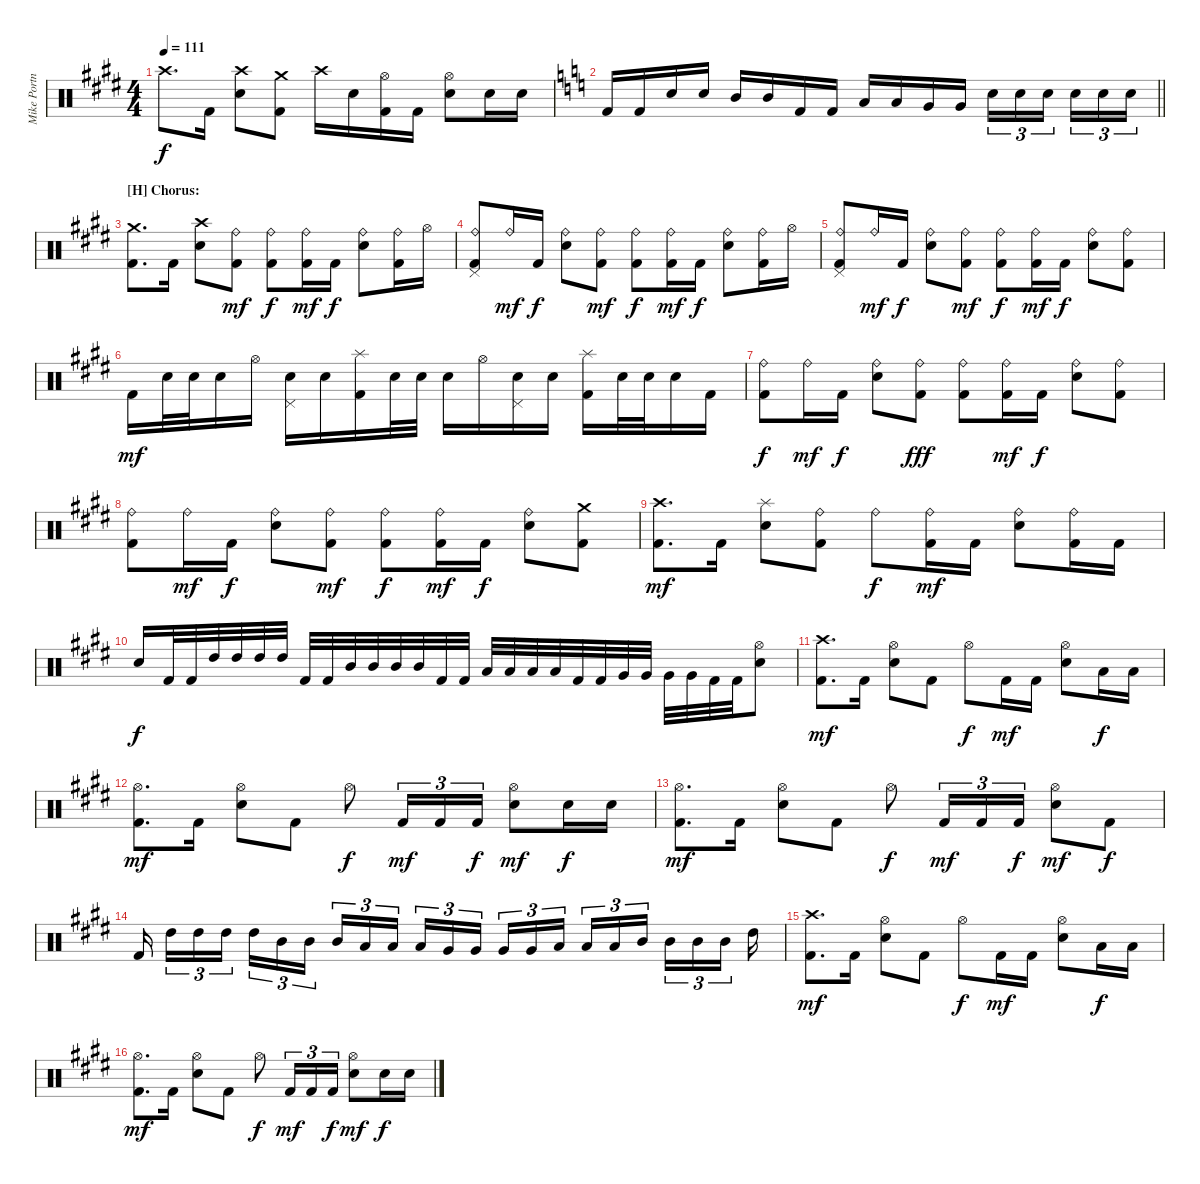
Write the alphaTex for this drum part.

\track ("Mike Portnoy - Drums" "Mike Portn") {instrument percussion}
\staff {score}
\articulation defaults
\ts (4 4)
\tempo 111
\clef neutral
\ks c#minor "Crash high (hit)".8{d dy f} "Kick (hit) 2".16
("Crash high (hit)" "Electric Snare (hit)").8 ("Crash medium (hit)" "Kick (hit) 2").8 "Crash high (hit)".16 "Electric Snare (hit)".16 ("Hi-Hat (open)" "Kick (hit) 2").16 "Kick (hit) 2".16 ("Hi-Hat (open)" "Electric Snare (hit)").8 "Electric Snare (hit)".16 "Electric Snare (hit)".16 |
\barLineRight lightlight
\ks c "Kick (hit) 2".16 "Kick (hit) 2".16 "Electric Snare (hit)".16 "Electric Snare (hit)".16 "Mid Tom (hit)".16 "Mid Tom (hit)".16 "Kick (hit) 2".16 "Kick (hit) 2".16 "Low Tom (hit)".16 "Low Tom (hit)".16 "Very Low Tom (hit)".16 "Very Low Tom (hit)".16 "Electric Snare (hit)".16{tu (3 2)} "Electric Snare (hit)".16{tu (3 2)} "Electric Snare (hit)".16{tu (3 2) beam splitsecondary} "Electric Snare (hit)".16{tu (3 2)} "Electric Snare (hit)".16{tu (3 2)} "Electric Snare (hit)".16{tu (3 2)}
|
\section ("" "[H] Chorus:")
\ks c#minor
("Kick (hit) 2" "Crash medium (hit)").8{d} "Kick (hit) 2".16 ("Electric Snare (hit)" "Crash high (hit)").8 ("Kick (hit) 2" "Ride (bell)").8{dy mf} ("Kick (hit) 2" "Ride (bell)").8{dy f} ("Kick (hit) 2" "Ride (bell)").16{dy mf} "Kick (hit) 2".16{dy f} ("Electric Snare (hit)" "Ride (bell)").8 ("Kick (hit) 2" "Ride (bell)").16 "Hi-Hat (open)".16 |
("Kick (hit) 2" "Ride (bell)" "Pedal Hi-Hat (hit)").8 "Ride (bell)".16{dy mf} "Kick (hit) 2".16{dy f} ("Electric Snare (hit)" "Ride (bell)").8 ("Kick (hit) 2" "Ride (bell)").8{dy mf} ("Kick (hit) 2" "Ride (bell)").8{dy f} ("Kick (hit) 2" "Ride (bell)").16{dy mf} "Kick (hit) 2".16{dy f} ("Electric Snare (hit)" "Ride (bell)").8 ("Kick (hit) 2" "Ride (bell)").16 "Hi-Hat (open)".16 |
("Kick (hit) 2" "Ride (bell)" "Pedal Hi-Hat (hit)").8 "Ride (bell)".16{dy mf} "Kick (hit) 2".16{dy f} ("Electric Snare (hit)" "Ride (bell)").8 ("Kick (hit) 2" "Ride (bell)").8{dy mf} ("Kick (hit) 2" "Ride (bell)").8{dy f} ("Kick (hit) 2" "Ride (bell)").16{dy mf} "Kick (hit) 2".16{dy f} ("Electric Snare (hit)" "Ride (bell)").8 ("Kick (hit) 2" "Ride (bell)").8 |
"Kick (hit) 2".16{dy mf} "Electric Snare (hit)".32 "Electric Snare (hit)".32 "Electric Snare (hit)".16 "Hi-Hat (open)".16 ("Electric Snare (hit)" "Pedal Hi-Hat (hit)").16 "Electric Snare (hit)".16 ("Kick (hit) 2" "Splash (hit)").16 "Electric Snare (hit)".32 "Electric Snare (hit)".32 "Electric Snare (hit)".16 "Hi-Hat (open)".16 ("Electric Snare (hit)" "Pedal Hi-Hat (hit)").16 "Electric Snare (hit)".16 ("Kick (hit) 2" "Splash (hit)").16 "Electric Snare (hit)".32 "Electric Snare (hit)".32 "Electric Snare (hit)".16 "Kick (hit) 2".16 |
("Kick (hit) 2" "Ride (bell)").8{dy f} "Ride (bell)".16{dy mf} "Kick (hit) 2".16{dy f} ("Electric Snare (hit)" "Ride (bell)").8 ("Kick (hit) 2" "Ride (bell)").8{dy fff} ("Kick (hit) 2" "Ride (bell)").8 ("Kick (hit) 2" "Ride (bell)").16{dy mf} "Kick (hit) 2".16{dy f} ("Electric Snare (hit)" "Ride (bell)").8 ("Kick (hit) 2" "Ride (bell)").8 |
("Kick (hit) 2" "Ride (bell)").8 "Ride (bell)".16{dy mf} "Kick (hit) 2".16{dy f} ("Electric Snare (hit)" "Ride (bell)").8 ("Kick (hit) 2" "Ride (bell)").8{dy mf} ("Kick (hit) 2" "Ride (bell)").8{dy f} ("Kick (hit) 2" "Ride (bell)").16{dy mf} "Kick (hit) 2".16{dy f} ("Electric Snare (hit)" "Ride (bell)").8 ("Kick (hit) 2" "Crash medium (hit)").8 |
("Kick (hit) 2" "Crash high (hit)").8{d dy mf} "Kick (hit) 2".16 ("Splash (hit)" "Electric Snare (hit)").8 ("Kick (hit) 2" "Ride (bell)").8 "Ride (bell)".8{dy f} ("Kick (hit) 2" "Ride (bell)").16{dy mf} "Kick (hit) 2".16 ("Electric Snare (hit)" "Ride (bell)").8 ("Kick (hit) 2" "Ride (bell)").16 "Kick (hit) 2".16 |
"Electric Snare (hit)".16{dy f} "Kick (hit) 2".32 "Kick (hit) 2".32 "High Tom (hit)".32 "High Tom (hit)".32 "High Tom (hit)".32 "High Tom (hit)".32 "Kick (hit) 2".32 "Kick (hit) 2".32 "Mid Tom (hit)".32 "Mid Tom (hit)".32 "Mid Tom (hit)".32 "Mid Tom (hit)".32 "Kick (hit) 2".32 "Kick (hit) 2".32 "Low Tom (hit)".32 "Low Tom (hit)".32 "Low Tom (hit)".32 "Low Tom (hit)".32 "Kick (hit) 2".32 "Kick (hit) 2".32 "Very Low Tom (hit)".32 "Very Low Tom (hit)".32 "Very Low Tom (hit)".32 "Very Low Tom (hit)".32 "Kick (hit) 2".32 "Kick (hit) 2".32 ("Electric Snare (hit)" "Hi-Hat (open)").8 |
("Kick (hit) 2" "Crash high (hit)").8{d dy mf} "Kick (hit) 2".16 ("Hi-Hat (open)" "Electric Snare (hit)").8 "Kick (hit) 2".8 "Hi-Hat (open)".8{dy f} "Kick (hit) 2".16{dy mf} "Kick (hit) 2".16 ("Hi-Hat (open)" "Electric Snare (hit)").8 "Low Tom (hit)".16{dy f} "Low Tom (hit)".16 |
("Kick (hit) 2" "Hi-Hat (open)").8{d dy mf} "Kick (hit) 2".16 ("Hi-Hat (open)" "Electric Snare (hit)").8 "Kick (hit) 2".8 "Hi-Hat (open)".8{dy f} "Kick (hit) 2".16{tu (3 2) dy mf} "Kick (hit) 2".16{tu (3 2)} "Kick (hit) 2".16{tu (3 2) dy f} ("Hi-Hat (open)" "Electric Snare (hit)").8{dy mf} "Electric Snare (hit)".16{dy f} "Electric Snare (hit)".16 |
("Kick (hit) 2" "Hi-Hat (open)").8{d dy mf} "Kick (hit) 2".16 ("Hi-Hat (open)" "Electric Snare (hit)").8 "Kick (hit) 2".8 "Hi-Hat (open)".8{dy f} "Kick (hit) 2".16{tu (3 2) dy mf} "Kick (hit) 2".16{tu (3 2)} "Kick (hit) 2".16{tu (3 2) dy f} ("Hi-Hat (open)" "Electric Snare (hit)").8{dy mf} "Kick (hit) 2".8{dy f} |
"Kick (hit) 2".16{beam splitsecondary} "High Tom (hit)".16{tu (3 2)} "High Tom (hit)".16{tu (3 2)} "High Tom (hit)".16{tu (3 2) beam splitsecondary} "High Tom (hit)".16{tu (3 2)} "Mid Tom (hit)".16{tu (3 2)} "Mid Tom (hit)".16{tu (3 2) beam splitsecondary} "Mid Tom (hit)".16{tu (3 2)} "Low Tom (hit)".16{tu (3 2)} "Low Tom (hit)".16{tu (3 2) beam splitsecondary} "Low Tom (hit)".16{tu (3 2)} "Very Low Tom (hit)".16{tu (3 2)} "Very Low Tom (hit)".16{tu (3 2) beam splitsecondary} "Very Low Tom (hit)".16{tu (3 2)} "Very Low Tom (hit)".16{tu (3 2)} "Low Tom (hit)".16{tu (3 2) beam splitsecondary} "Low Tom (hit)".16{tu (3 2)} "Low Tom (hit)".16{tu (3 2)} "Mid Tom (hit)".16{tu (3 2) beam splitsecondary} "Mid Tom (hit)".16{tu (3 2)} "Mid Tom (hit)".16{tu (3 2)} "Mid Tom (hit)".16{tu (3 2) beam splitsecondary} "High Tom (hit)".16 |
("Kick (hit) 2" "Crash high (hit)").8{d dy mf} "Kick (hit) 2".16 ("Hi-Hat (open)" "Electric Snare (hit)").8 "Kick (hit) 2".8 "Hi-Hat (open)".8{dy f} "Kick (hit) 2".16{dy mf} "Kick (hit) 2".16 ("Hi-Hat (open)" "Electric Snare (hit)").8 "Low Tom (hit)".16{dy f} "Low Tom (hit)".16 |
("Kick (hit) 2" "Hi-Hat (open)").8{d dy mf} "Kick (hit) 2".16 ("Hi-Hat (open)" "Electric Snare (hit)").8 "Kick (hit) 2".8 "Hi-Hat (open)".8{dy f} "Kick (hit) 2".16{tu (3 2) dy mf} "Kick (hit) 2".16{tu (3 2)} "Kick (hit) 2".16{tu (3 2) dy f} ("Hi-Hat (open)" "Electric Snare (hit)").8{dy mf} "Electric Snare (hit)".16{dy f} "Electric Snare (hit)".16
